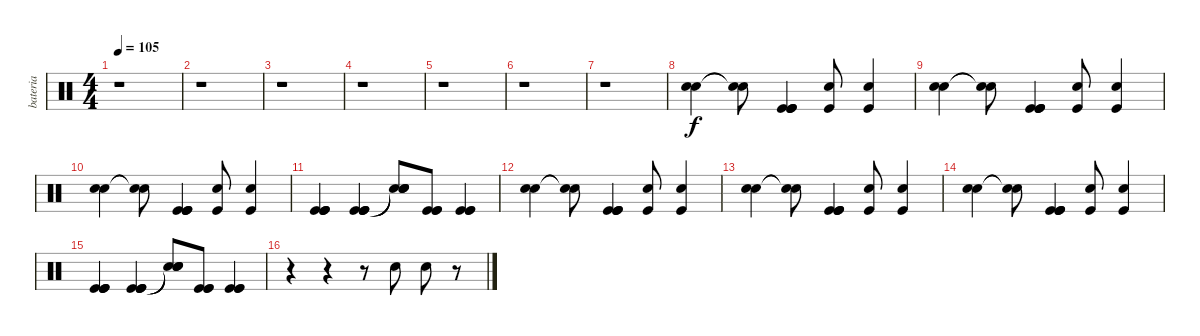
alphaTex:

\track ("bateria" "bateria") {instrument percussion}
\staff {score}
\articulation defaults
\ts (4 4)
\tempo 105
\clef neutral
\ks c
r.1{dy f} |
r.1 |
r.1 |
r.1 |
r.1 |
r.1 |
r.1 |
("Snare (hit) 2" "Snare (hit) 2").4 ("Snare (hit) 2"{t} "Snare (hit)"{t}).8 ("Kick (hit)" "Kick (hit)" "Kick (hit)" "Kick (hit)").4 ("Snare (hit) 2" "Kick (hit)").8 ("Snare (hit) 2" "Kick (hit)").4 |
("Snare (hit) 2" "Snare (hit) 2").4 ("Snare (hit) 2"{t} "Snare (hit)"{t}).8 ("Kick (hit)" "Kick (hit)" "Kick (hit)" "Kick (hit)").4 ("Snare (hit) 2" "Kick (hit)").8 ("Snare (hit) 2" "Kick (hit)").4 |
("Snare (hit) 2" "Snare (hit) 2").4 ("Snare (hit) 2"{t} "Snare (hit)"{t}).8 ("Kick (hit)" "Kick (hit)" "Kick (hit)" "Kick (hit)").4 ("Snare (hit) 2" "Kick (hit)").8 ("Snare (hit) 2" "Kick (hit)").4 |
("Kick (hit)" "Kick (hit)" "Kick (hit)" "Kick (hit)").4 ("Kick (hit)" "Kick (hit)" "Kick (hit)" "Kick (hit)").4 ("Snare (hit) 2" "Snare (hit)"{t} "Snare (hit)"{t} "Snare (hit)"{t}).8 ("Kick (hit)" "Kick (hit)" "Kick (hit)").8 ("Kick (hit)" "Kick (hit)" "Kick (hit)").4 |
("Snare (hit) 2" "Snare (hit) 2").4 ("Snare (hit) 2"{t} "Snare (hit)"{t}).8 ("Kick (hit)" "Kick (hit)" "Kick (hit)" "Kick (hit)").4 ("Snare (hit) 2" "Kick (hit)").8 ("Snare (hit) 2" "Kick (hit)").4 |
("Snare (hit) 2" "Snare (hit) 2").4 ("Snare (hit) 2"{t} "Snare (hit)"{t}).8 ("Kick (hit)" "Kick (hit)" "Kick (hit)" "Kick (hit)").4 ("Snare (hit) 2" "Kick (hit)").8 ("Snare (hit) 2" "Kick (hit)").4 |
("Snare (hit) 2" "Snare (hit) 2").4 ("Snare (hit) 2"{t} "Snare (hit)"{t}).8 ("Kick (hit)" "Kick (hit)" "Kick (hit)" "Kick (hit)").4 ("Snare (hit) 2" "Kick (hit)").8 ("Snare (hit) 2" "Kick (hit)").4 |
("Kick (hit)" "Kick (hit)" "Kick (hit)" "Kick (hit)").4 ("Kick (hit)" "Kick (hit)" "Kick (hit)" "Kick (hit)").4 ("Snare (hit) 2" "Snare (hit)"{t} "Snare (hit)"{t} "Snare (hit)"{t}).8 ("Kick (hit)" "Kick (hit)" "Kick (hit)").8 ("Kick (hit)" "Kick (hit)" "Kick (hit)").4 |
r.4 r.4 r.8 "Electric Snare (hit)".8 "Electric Snare (hit)".8 r.8
